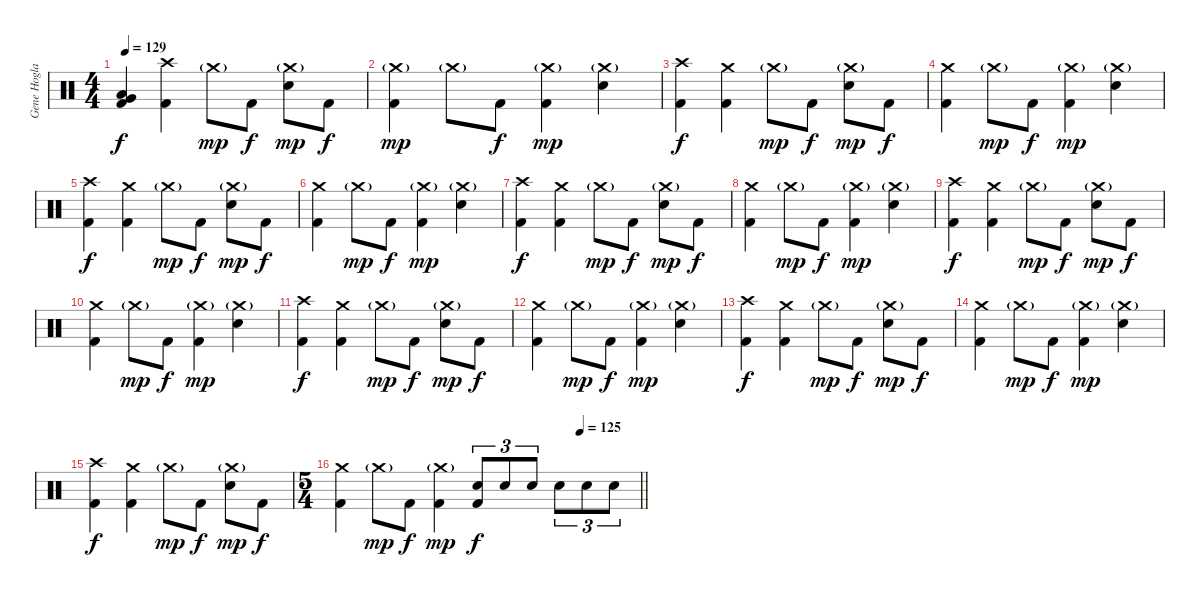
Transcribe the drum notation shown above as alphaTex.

\track ("Gene Hoglan" "Gene Hogla") {instrument percussion}
\staff {score}
\articulation defaults
\ts (4 4)
\tempo 129
\clef neutral
\ks c
("Very Low Tom (hit)" "Low Floor Tom (hit)" "Kick (hit) 2").4{dy f} ("Crash high (hit)" "Kick (hit) 2").4 "Crash medium (hit)"{g}.8{dy mp} "Kick (hit) 2".8{dy f} ("Crash medium (hit)"{g} "Electric Snare (hit)").8{dy mp} "Kick (hit) 2".8{dy f} |
("Crash medium (hit)"{g} "Kick (hit) 2").4{dy mp} "Crash medium (hit)"{g}.8 "Kick (hit) 2".8{dy f} ("Crash medium (hit)"{g} "Kick (hit) 2").4{dy mp} ("Crash medium (hit)"{g} "Electric Snare (hit)").4 |
("Crash high (hit)" "Kick (hit) 2").4{dy f} ("Crash medium (hit)" "Kick (hit) 2").4 "Crash medium (hit)"{g}.8{dy mp} "Kick (hit) 2".8{dy f} ("Crash medium (hit)"{g} "Electric Snare (hit)").8{dy mp} "Kick (hit) 2".8{dy f} |
("Crash medium (hit)" "Kick (hit) 2").4 "Crash medium (hit)"{g}.8{dy mp} "Kick (hit) 2".8{dy f} ("Crash medium (hit)"{g} "Kick (hit) 2").4{dy mp} ("Crash medium (hit)"{g} "Electric Snare (hit)").4 |
("Crash high (hit)" "Kick (hit) 2").4{dy f} ("Crash medium (hit)" "Kick (hit) 2").4 "Crash medium (hit)"{g}.8{dy mp} "Kick (hit) 2".8{dy f} ("Crash medium (hit)"{g} "Electric Snare (hit)").8{dy mp} "Kick (hit) 2".8{dy f} |
("Crash medium (hit)" "Kick (hit) 2").4 "Crash medium (hit)"{g}.8{dy mp} "Kick (hit) 2".8{dy f} ("Crash medium (hit)"{g} "Kick (hit) 2").4{dy mp} ("Crash medium (hit)"{g} "Electric Snare (hit)").4 |
("Crash high (hit)" "Kick (hit) 2").4{dy f} ("Crash medium (hit)" "Kick (hit) 2").4 "Crash medium (hit)"{g}.8{dy mp} "Kick (hit) 2".8{dy f} ("Crash medium (hit)"{g} "Electric Snare (hit)").8{dy mp} "Kick (hit) 2".8{dy f} |
("Crash medium (hit)" "Kick (hit) 2").4 "Crash medium (hit)"{g}.8{dy mp} "Kick (hit) 2".8{dy f} ("Crash medium (hit)"{g} "Kick (hit) 2").4{dy mp} ("Crash medium (hit)"{g} "Electric Snare (hit)").4 |
("Crash high (hit)" "Kick (hit) 2").4{dy f} ("Crash medium (hit)" "Kick (hit) 2").4 "Crash medium (hit)"{g}.8{dy mp} "Kick (hit) 2".8{dy f} ("Crash medium (hit)"{g} "Electric Snare (hit)").8{dy mp} "Kick (hit) 2".8{dy f} |
("Crash medium (hit)" "Kick (hit) 2").4 "Crash medium (hit)"{g}.8{dy mp} "Kick (hit) 2".8{dy f} ("Crash medium (hit)"{g} "Kick (hit) 2").4{dy mp} ("Crash medium (hit)"{g} "Electric Snare (hit)").4 |
("Crash high (hit)" "Kick (hit) 2").4{dy f} ("Crash medium (hit)" "Kick (hit) 2").4 "Crash medium (hit)"{g}.8{dy mp} "Kick (hit) 2".8{dy f} ("Crash medium (hit)"{g} "Electric Snare (hit)").8{dy mp} "Kick (hit) 2".8{dy f} |
("Crash medium (hit)" "Kick (hit) 2").4 "Crash medium (hit)"{g}.8{dy mp} "Kick (hit) 2".8{dy f} ("Crash medium (hit)"{g} "Kick (hit) 2").4{dy mp} ("Crash medium (hit)"{g} "Electric Snare (hit)").4 |
("Crash high (hit)" "Kick (hit) 2").4{dy f} ("Crash medium (hit)" "Kick (hit) 2").4 "Crash medium (hit)"{g}.8{dy mp} "Kick (hit) 2".8{dy f} ("Crash medium (hit)"{g} "Electric Snare (hit)").8{dy mp} "Kick (hit) 2".8{dy f} |
("Crash medium (hit)" "Kick (hit) 2").4 "Crash medium (hit)"{g}.8{dy mp} "Kick (hit) 2".8{dy f} ("Crash medium (hit)"{g} "Kick (hit) 2").4{dy mp} ("Crash medium (hit)"{g} "Electric Snare (hit)").4 |
("Crash high (hit)" "Kick (hit) 2").4{dy f} ("Crash medium (hit)" "Kick (hit) 2").4 "Crash medium (hit)"{g}.8{dy mp} "Kick (hit) 2".8{dy f} ("Crash medium (hit)"{g} "Electric Snare (hit)").8{dy mp} "Kick (hit) 2".8{dy f} |
\ts (5 4)
\tempo (125 0.8)
\barLineRight lightlight
("Crash medium (hit)" "Kick (hit) 2").4 "Crash medium (hit)"{g}.8{dy mp} "Kick (hit) 2".8{dy f} ("Crash medium (hit)"{g} "Kick (hit) 2").4{dy mp} ("Electric Snare (hit)" "Kick (hit) 2").8{tu (3 2) dy f} "Electric Snare (hit)".8{tu (3 2)} "Electric Snare (hit)".8{tu (3 2)} "Electric Snare (hit)".8{tu (3 2)} "Electric Snare (hit)".8{tu (3 2)} "Electric Snare (hit)".8{tu (3 2)}
